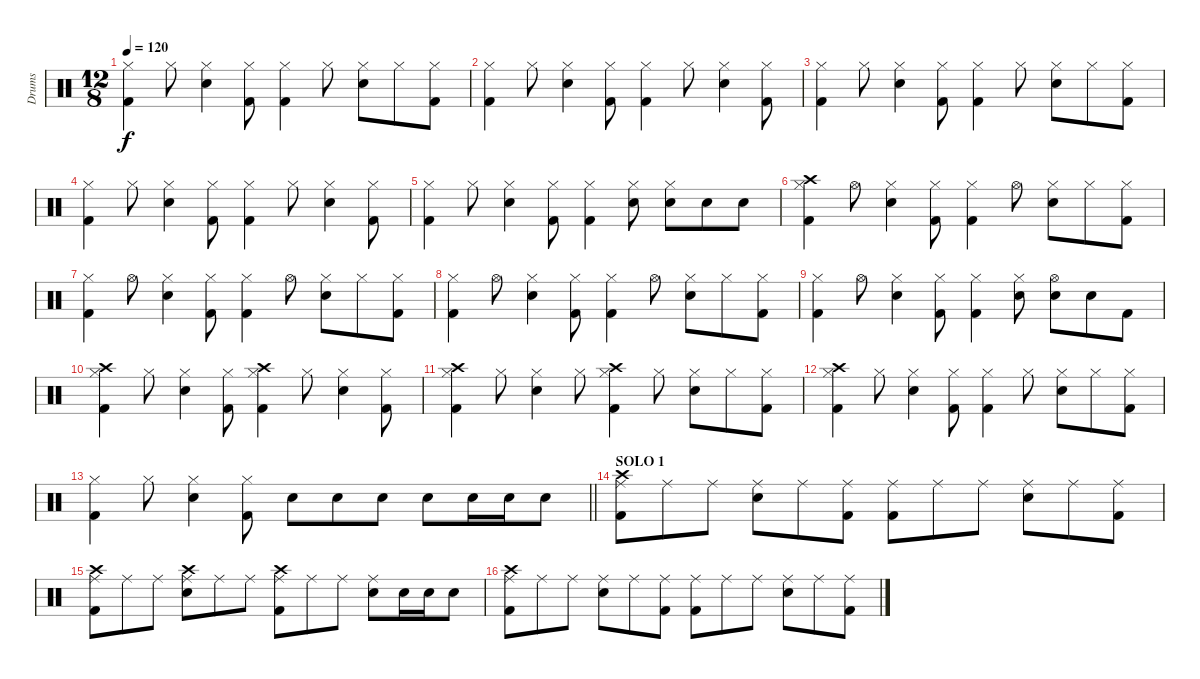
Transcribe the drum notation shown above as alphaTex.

\track ("Drums" "Drums") {instrument percussion}
\staff {score}
\articulation defaults
\ts (12 8)
\tempo 120
\clef neutral
\ks c
("Hi-Hat (closed)" "Kick (hit) 2").4{dy f} "Hi-Hat (closed)".8 ("Hi-Hat (closed)" "Electric Snare (hit)").4 ("Hi-Hat (closed)" "Kick (hit) 2").8 ("Hi-Hat (closed)" "Kick (hit) 2").4 "Hi-Hat (closed)".8 ("Hi-Hat (closed)" "Electric Snare (hit)").8 "Hi-Hat (closed)".8 ("Hi-Hat (closed)" "Kick (hit) 2").8 |
("Hi-Hat (closed)" "Kick (hit) 2").4 "Hi-Hat (closed)".8 ("Hi-Hat (closed)" "Electric Snare (hit)").4 ("Hi-Hat (closed)" "Kick (hit) 2").8 ("Hi-Hat (closed)" "Kick (hit) 2").4 "Hi-Hat (closed)".8 ("Hi-Hat (closed)" "Electric Snare (hit)").4 ("Hi-Hat (closed)" "Kick (hit) 2").8 |
("Hi-Hat (closed)" "Kick (hit) 2").4 "Hi-Hat (closed)".8 ("Hi-Hat (closed)" "Electric Snare (hit)").4 ("Hi-Hat (closed)" "Kick (hit) 2").8 ("Hi-Hat (closed)" "Kick (hit) 2").4 "Hi-Hat (closed)".8 ("Hi-Hat (closed)" "Electric Snare (hit)").8 "Hi-Hat (closed)".8 ("Hi-Hat (closed)" "Kick (hit) 2").8 |
("Hi-Hat (closed)" "Kick (hit) 2").4 "Hi-Hat (closed)".8 ("Hi-Hat (closed)" "Electric Snare (hit)").4 ("Hi-Hat (closed)" "Kick (hit) 2").8 ("Hi-Hat (closed)" "Kick (hit) 2").4 "Hi-Hat (closed)".8 ("Hi-Hat (closed)" "Electric Snare (hit)").4 ("Hi-Hat (closed)" "Kick (hit) 2").8 |
("Hi-Hat (closed)" "Kick (hit) 2").4 "Hi-Hat (closed)".8 ("Hi-Hat (closed)" "Electric Snare (hit)").4 ("Hi-Hat (closed)" "Kick (hit) 2").8 ("Hi-Hat (closed)" "Kick (hit) 2").4 ("Hi-Hat (closed)" "Electric Snare (hit)").8 ("Hi-Hat (closed)" "Electric Snare (hit)").8 "Electric Snare (hit)".8 "Electric Snare (hit)".8 |
("Crash high (hit)" "Hi-Hat (closed)" "Kick (hit) 2").4 "Hi-Hat (open)".8 ("Hi-Hat (closed)" "Electric Snare (hit)").4 ("Hi-Hat (closed)" "Kick (hit) 2").8 ("Hi-Hat (closed)" "Kick (hit) 2").4 "Hi-Hat (open)".8 ("Hi-Hat (closed)" "Electric Snare (hit)").8 "Hi-Hat (closed)".8 ("Hi-Hat (closed)" "Kick (hit) 2").8 |
("Hi-Hat (closed)" "Kick (hit) 2").4 "Hi-Hat (open)".8 ("Hi-Hat (closed)" "Electric Snare (hit)").4 ("Hi-Hat (closed)" "Kick (hit) 2").8 ("Hi-Hat (closed)" "Kick (hit) 2").4 "Hi-Hat (open)".8 ("Hi-Hat (closed)" "Electric Snare (hit)").8 "Hi-Hat (closed)".8 ("Hi-Hat (closed)" "Kick (hit) 2").8 |
("Hi-Hat (closed)" "Kick (hit) 2").4 "Hi-Hat (open)".8 ("Hi-Hat (closed)" "Electric Snare (hit)").4 ("Hi-Hat (closed)" "Kick (hit) 2").8 ("Hi-Hat (closed)" "Kick (hit) 2").4 "Hi-Hat (open)".8 ("Hi-Hat (closed)" "Electric Snare (hit)").8 "Hi-Hat (closed)".8 ("Hi-Hat (closed)" "Kick (hit) 2").8 |
("Hi-Hat (closed)" "Kick (hit) 2").4 "Hi-Hat (open)".8 ("Hi-Hat (closed)" "Electric Snare (hit)").4 ("Hi-Hat (closed)" "Kick (hit) 2").8 ("Hi-Hat (closed)" "Kick (hit) 2").4 ("Hi-Hat (closed)" "Electric Snare (hit)").8 ("Hi-Hat (open)" "Electric Snare (hit)").8 "Electric Snare (hit)".8 "Kick (hit) 2".8 |
("Crash high (hit)" "Hi-Hat (closed)" "Kick (hit) 2").4 "Hi-Hat (closed)".8 ("Hi-Hat (closed)" "Electric Snare (hit)").4 ("Hi-Hat (closed)" "Kick (hit) 2").8 ("Crash high (hit)" "Hi-Hat (closed)" "Kick (hit) 2").4 "Hi-Hat (closed)".8 ("Hi-Hat (closed)" "Electric Snare (hit)").4 ("Hi-Hat (closed)" "Kick (hit) 2").8 |
("Crash high (hit)" "Hi-Hat (closed)" "Kick (hit) 2").4 "Hi-Hat (closed)".8 ("Hi-Hat (closed)" "Electric Snare (hit)").4 "Hi-Hat (closed)".8 ("Crash high (hit)" "Hi-Hat (closed)" "Kick (hit) 2").4 "Hi-Hat (closed)".8 ("Hi-Hat (closed)" "Electric Snare (hit)").8 "Hi-Hat (closed)".8 ("Hi-Hat (closed)" "Kick (hit) 2").8 |
("Crash high (hit)" "Hi-Hat (closed)" "Kick (hit) 2").4 "Hi-Hat (closed)".8 ("Hi-Hat (closed)" "Electric Snare (hit)").4 ("Hi-Hat (closed)" "Kick (hit) 2").8 ("Hi-Hat (closed)" "Kick (hit) 2").4 "Hi-Hat (closed)".8 ("Hi-Hat (closed)" "Electric Snare (hit)").8 "Hi-Hat (closed)".8 ("Hi-Hat (closed)" "Kick (hit) 2").8 |
\barLineRight lightlight
("Hi-Hat (closed)" "Kick (hit) 2").4 "Hi-Hat (closed)".8 ("Hi-Hat (closed)" "Electric Snare (hit)").4 ("Hi-Hat (closed)" "Kick (hit) 2").8 "Electric Snare (hit)".8 "Electric Snare (hit)".8 "Electric Snare (hit)".8 "Electric Snare (hit)".8 "Electric Snare (hit)".16 "Electric Snare (hit)".16 "Electric Snare (hit)".8 |
\section ("" "SOLO 1")
("Crash high (hit)" "Ride (middle)" "Kick (hit) 2").8 "Ride (middle)".8 "Ride (middle)".8 ("Ride (middle)" "Electric Snare (hit)").8 "Ride (middle)".8 ("Ride (middle)" "Kick (hit) 2").8 ("Ride (middle)" "Kick (hit) 2").8 "Ride (middle)".8 "Ride (middle)".8 ("Ride (middle)" "Electric Snare (hit)").8 "Ride (middle)".8 ("Ride (middle)" "Kick (hit) 2").8 |
("Crash high (hit)" "Ride (middle)" "Kick (hit) 2").8 "Ride (middle)".8 "Ride (middle)".8 ("Crash high (hit)" "Ride (middle)" "Electric Snare (hit)").8 "Ride (middle)".8 "Ride (middle)".8 ("Crash high (hit)" "Ride (middle)" "Kick (hit) 2").8 "Ride (middle)".8 "Ride (middle)".8 ("Ride (middle)" "Electric Snare (hit)").8 "Electric Snare (hit)".16 "Electric Snare (hit)".16 "Electric Snare (hit)".8 |
("Crash high (hit)" "Ride (middle)" "Kick (hit) 2").8 "Ride (middle)".8 "Ride (middle)".8 ("Ride (middle)" "Electric Snare (hit)").8 "Ride (middle)".8 ("Ride (middle)" "Kick (hit) 2").8 ("Ride (middle)" "Kick (hit) 2").8 "Ride (middle)".8 "Ride (middle)".8 ("Ride (middle)" "Electric Snare (hit)").8 "Ride (middle)".8 ("Ride (middle)" "Kick (hit) 2").8
